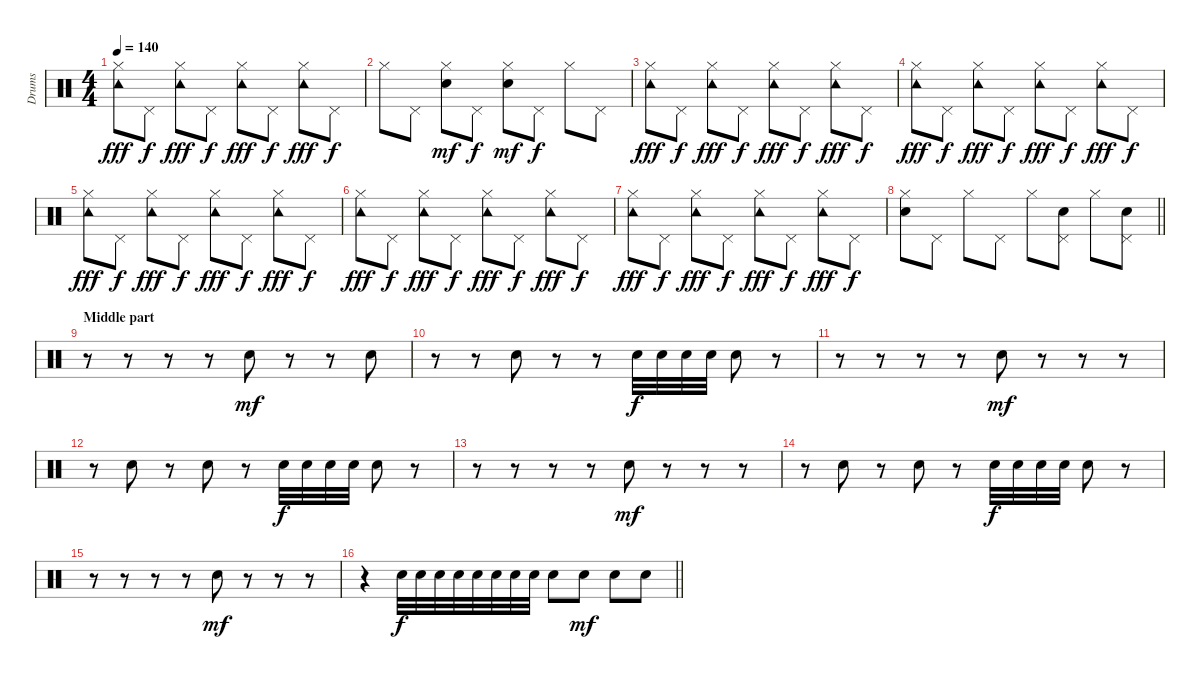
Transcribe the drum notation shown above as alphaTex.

\track ("Drums" "Drums") {instrument percussion}
\staff {score}
\articulation defaults
\ts (4 4)
\tempo 140
\clef neutral
\ks c
("Tambourine (hit)" "Hi-Hat (closed)").8{dy fff} "Pedal Hi-Hat (hit)".8{dy f} ("Tambourine (hit)" "Hi-Hat (closed)").8{dy fff} "Pedal Hi-Hat (hit)".8{dy f} ("Tambourine (hit)" "Hi-Hat (closed)").8{dy fff} "Pedal Hi-Hat (hit)".8{dy f} ("Tambourine (hit)" "Hi-Hat (closed)").8{dy fff} "Pedal Hi-Hat (hit)".8{dy f} |
"Hi-Hat (closed)".8 "Pedal Hi-Hat (hit)".8 ("Hi-Hat (closed)" "Snare (hit) 2").8{dy mf} "Pedal Hi-Hat (hit)".8{dy f} ("Hi-Hat (closed)" "Snare (hit) 2").8{dy mf} "Pedal Hi-Hat (hit)".8{dy f} "Hi-Hat (closed)".8 "Pedal Hi-Hat (hit)".8 |
("Tambourine (hit)" "Hi-Hat (closed)").8{dy fff} "Pedal Hi-Hat (hit)".8{dy f} ("Tambourine (hit)" "Hi-Hat (closed)").8{dy fff} "Pedal Hi-Hat (hit)".8{dy f} ("Tambourine (hit)" "Hi-Hat (closed)").8{dy fff} "Pedal Hi-Hat (hit)".8{dy f} ("Tambourine (hit)" "Hi-Hat (closed)").8{dy fff} "Pedal Hi-Hat (hit)".8{dy f} |
("Tambourine (hit)" "Hi-Hat (closed)").8{dy fff} "Pedal Hi-Hat (hit)".8{dy f} ("Tambourine (hit)" "Hi-Hat (closed)").8{dy fff} "Pedal Hi-Hat (hit)".8{dy f} ("Tambourine (hit)" "Hi-Hat (closed)").8{dy fff} "Pedal Hi-Hat (hit)".8{dy f} ("Tambourine (hit)" "Hi-Hat (closed)").8{dy fff} "Pedal Hi-Hat (hit)".8{dy f} |
("Tambourine (hit)" "Hi-Hat (closed)").8{dy fff} "Pedal Hi-Hat (hit)".8{dy f} ("Tambourine (hit)" "Hi-Hat (closed)").8{dy fff} "Pedal Hi-Hat (hit)".8{dy f} ("Tambourine (hit)" "Hi-Hat (closed)").8{dy fff} "Pedal Hi-Hat (hit)".8{dy f} ("Tambourine (hit)" "Hi-Hat (closed)").8{dy fff} "Pedal Hi-Hat (hit)".8{dy f} |
("Tambourine (hit)" "Hi-Hat (closed)").8{dy fff} "Pedal Hi-Hat (hit)".8{dy f} ("Tambourine (hit)" "Hi-Hat (closed)").8{dy fff} "Pedal Hi-Hat (hit)".8{dy f} ("Tambourine (hit)" "Hi-Hat (closed)").8{dy fff} "Pedal Hi-Hat (hit)".8{dy f} ("Tambourine (hit)" "Hi-Hat (closed)").8{dy fff} "Pedal Hi-Hat (hit)".8{dy f} |
("Tambourine (hit)" "Hi-Hat (closed)").8{dy fff} "Pedal Hi-Hat (hit)".8{dy f} ("Tambourine (hit)" "Hi-Hat (closed)").8{dy fff} "Pedal Hi-Hat (hit)".8{dy f} ("Tambourine (hit)" "Hi-Hat (closed)").8{dy fff} "Pedal Hi-Hat (hit)".8{dy f} ("Tambourine (hit)" "Hi-Hat (closed)").8{dy fff} "Pedal Hi-Hat (hit)".8{dy f} |
\barLineRight lightlight
("Hi-Hat (closed)" "Snare (hit) 2").8 "Pedal Hi-Hat (hit)".8 "Hi-Hat (closed)".8 "Pedal Hi-Hat (hit)".8 "Hi-Hat (closed)".8 ("Pedal Hi-Hat (hit)" "Snare (hit) 2").8 "Hi-Hat (closed)".8 ("Pedal Hi-Hat (hit)" "Snare (hit) 2").8 |
\section ("" "Middle part")
r.8 r.8 r.8 r.8 "Snare (hit) 2".8{dy mf} r.8 r.8 "Snare (hit) 2".8 |
r.8 r.8 "Snare (hit) 2".8 r.8 r.8 "Electric Snare (hit)".32{dy f} "Electric Snare (hit)".32 "Electric Snare (hit)".32 "Electric Snare (hit)".32 "Electric Snare (hit)".8 r.8 |
r.8 r.8 r.8 r.8 "Snare (hit) 2".8{dy mf} r.8 r.8 r.8 |
r.8 "Snare (hit) 2".8 r.8 "Snare (hit) 2".8 r.8 "Electric Snare (hit)".32{dy f} "Electric Snare (hit)".32 "Electric Snare (hit)".32 "Electric Snare (hit)".32 "Electric Snare (hit)".8 r.8 |
r.8 r.8 r.8 r.8 "Snare (hit) 2".8{dy mf} r.8 r.8 r.8 |
r.8 "Snare (hit) 2".8 r.8 "Snare (hit) 2".8 r.8 "Electric Snare (hit)".32{dy f} "Electric Snare (hit)".32 "Electric Snare (hit)".32 "Electric Snare (hit)".32 "Electric Snare (hit)".8 r.8 |
r.8 r.8 r.8 r.8 "Snare (hit) 2".8{dy mf} r.8 r.8 r.8 |
\barLineRight lightlight
r.4 "Electric Snare (hit)".32{dy f} "Electric Snare (hit)".32 "Electric Snare (hit)".32 "Electric Snare (hit)".32 "Electric Snare (hit)".32 "Electric Snare (hit)".32 "Electric Snare (hit)".32 "Electric Snare (hit)".32 "Electric Snare (hit)".8 "Electric Snare (hit)".8{dy mf} "Electric Snare (hit)".8 "Electric Snare (hit)".8
